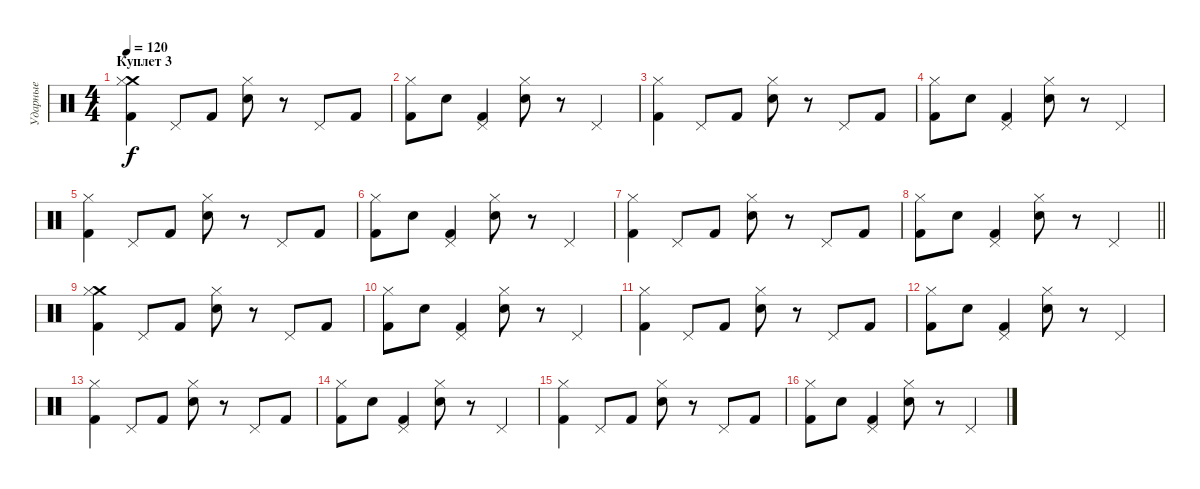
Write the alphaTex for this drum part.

\track ("Ударные" "Ударные") {instrument percussion}
\staff {score}
\articulation defaults
\ts (4 4)
\section ("" "Куплет 3")
\tempo 120
\clef neutral
\ks c
("Kick (hit) 2" "Crash medium (hit)" "Hi-Hat (closed)").4{dy f} "Pedal Hi-Hat (hit)".8 "Kick (hit) 2".8 ("Snare (hit) 2" "Hi-Hat (closed)").8 r.8 "Pedal Hi-Hat (hit)".8 "Kick (hit) 2".8 |
("Kick (hit) 2" "Hi-Hat (closed)").8 "Snare (hit) 2".8 ("Kick (hit) 2" "Pedal Hi-Hat (hit)").4 ("Snare (hit) 2" "Hi-Hat (closed)").8 r.8 "Pedal Hi-Hat (hit)".4 |
("Kick (hit) 2" "Hi-Hat (closed)").4 "Pedal Hi-Hat (hit)".8 "Kick (hit) 2".8 ("Snare (hit) 2" "Hi-Hat (closed)").8 r.8 "Pedal Hi-Hat (hit)".8 "Kick (hit) 2".8 |
("Kick (hit) 2" "Hi-Hat (closed)").8 "Snare (hit) 2".8 ("Kick (hit) 2" "Pedal Hi-Hat (hit)").4 ("Snare (hit) 2" "Hi-Hat (closed)").8 r.8 "Pedal Hi-Hat (hit)".4 |
("Kick (hit) 2" "Hi-Hat (closed)").4 "Pedal Hi-Hat (hit)".8 "Kick (hit) 2".8 ("Snare (hit) 2" "Hi-Hat (closed)").8 r.8 "Pedal Hi-Hat (hit)".8 "Kick (hit) 2".8 |
("Kick (hit) 2" "Hi-Hat (closed)").8 "Snare (hit) 2".8 ("Kick (hit) 2" "Pedal Hi-Hat (hit)").4 ("Snare (hit) 2" "Hi-Hat (closed)").8 r.8 "Pedal Hi-Hat (hit)".4 |
("Kick (hit) 2" "Hi-Hat (closed)").4 "Pedal Hi-Hat (hit)".8 "Kick (hit) 2".8 ("Snare (hit) 2" "Hi-Hat (closed)").8 r.8 "Pedal Hi-Hat (hit)".8 "Kick (hit) 2".8 |
\barLineRight lightlight
("Kick (hit) 2" "Hi-Hat (closed)").8 "Snare (hit) 2".8 ("Kick (hit) 2" "Pedal Hi-Hat (hit)").4 ("Snare (hit) 2" "Hi-Hat (closed)").8 r.8 "Pedal Hi-Hat (hit)".4 |
("Kick (hit) 2" "Crash medium (hit)" "Hi-Hat (closed)").4 "Pedal Hi-Hat (hit)".8 "Kick (hit) 2".8 ("Snare (hit) 2" "Hi-Hat (closed)").8 r.8 "Pedal Hi-Hat (hit)".8 "Kick (hit) 2".8 |
("Kick (hit) 2" "Hi-Hat (closed)").8 "Snare (hit) 2".8 ("Kick (hit) 2" "Pedal Hi-Hat (hit)").4 ("Snare (hit) 2" "Hi-Hat (closed)").8 r.8 "Pedal Hi-Hat (hit)".4 |
("Kick (hit) 2" "Hi-Hat (closed)").4 "Pedal Hi-Hat (hit)".8 "Kick (hit) 2".8 ("Snare (hit) 2" "Hi-Hat (closed)").8 r.8 "Pedal Hi-Hat (hit)".8 "Kick (hit) 2".8 |
("Kick (hit) 2" "Hi-Hat (closed)").8 "Snare (hit) 2".8 ("Kick (hit) 2" "Pedal Hi-Hat (hit)").4 ("Snare (hit) 2" "Hi-Hat (closed)").8 r.8 "Pedal Hi-Hat (hit)".4 |
("Kick (hit) 2" "Hi-Hat (closed)").4 "Pedal Hi-Hat (hit)".8 "Kick (hit) 2".8 ("Snare (hit) 2" "Hi-Hat (closed)").8 r.8 "Pedal Hi-Hat (hit)".8 "Kick (hit) 2".8 |
("Kick (hit) 2" "Hi-Hat (closed)").8 "Snare (hit) 2".8 ("Kick (hit) 2" "Pedal Hi-Hat (hit)").4 ("Snare (hit) 2" "Hi-Hat (closed)").8 r.8 "Pedal Hi-Hat (hit)".4 |
("Kick (hit) 2" "Hi-Hat (closed)").4 "Pedal Hi-Hat (hit)".8 "Kick (hit) 2".8 ("Snare (hit) 2" "Hi-Hat (closed)").8 r.8 "Pedal Hi-Hat (hit)".8 "Kick (hit) 2".8 |
("Kick (hit) 2" "Hi-Hat (closed)").8 "Snare (hit) 2".8 ("Kick (hit) 2" "Pedal Hi-Hat (hit)").4 ("Snare (hit) 2" "Hi-Hat (closed)").8 r.8 "Pedal Hi-Hat (hit)".4
